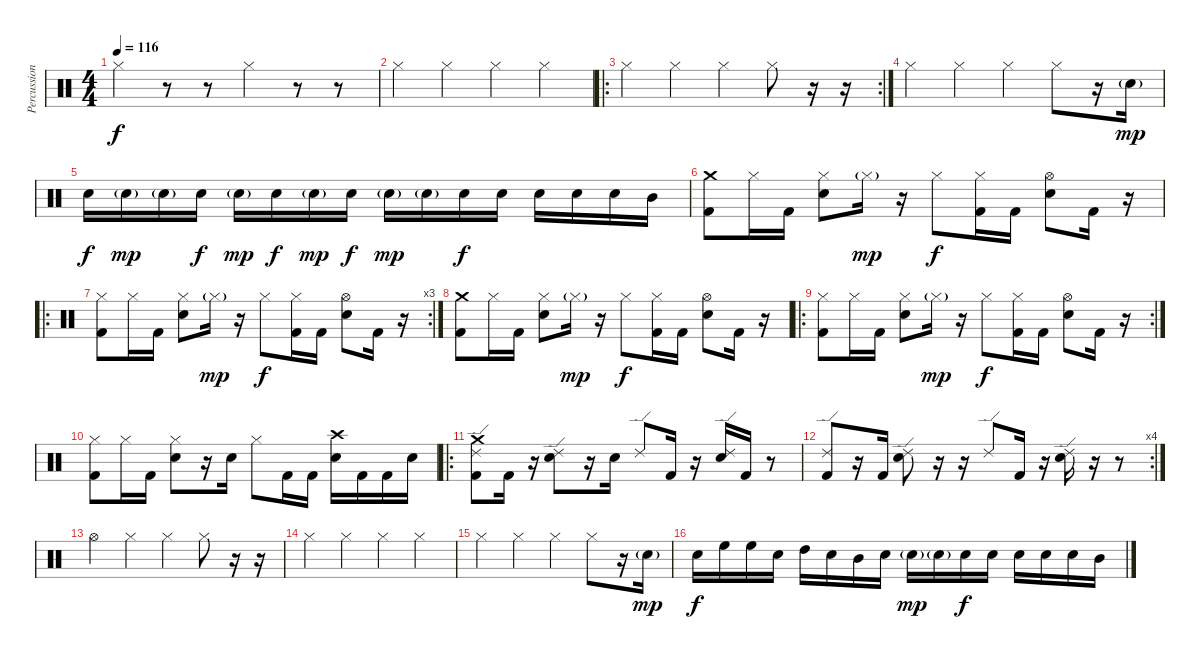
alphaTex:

\track ("Percussion" "Percussion") {instrument percussion}
\staff {score}
\articulation defaults
\ts (4 4)
\tempo 116
\clef neutral
\ks c "Hi-Hat (closed)".4{dy f}
r.8 r.8 "Hi-Hat (closed)".4 r.8 r.8 |
"Hi-Hat (closed)".4 "Hi-Hat (closed)".4 "Hi-Hat (closed)".4 "Hi-Hat (closed)".4 |
\ro
\rc 2 "Hi-Hat (closed)".4 "Hi-Hat (closed)".4 "Hi-Hat (closed)".4 "Hi-Hat (closed)".8
r.16 r.16 |
"Hi-Hat (closed)".4 "Hi-Hat (closed)".4 "Hi-Hat (closed)".4 "Hi-Hat (closed)".8 r.16 "Electric Snare (hit)"{g}.16{dy mp} |
"Electric Snare (hit)".16{dy f} "Electric Snare (hit)"{g}.16{dy mp} "Electric Snare (hit)"{g}.16 "Electric Snare (hit)".16{dy f} "Electric Snare (hit)"{g}.16{dy mp} "Electric Snare (hit)".16{dy f} "Electric Snare (hit)"{g}.16{dy mp} "Electric Snare (hit)".16{dy f} "Electric Snare (hit)"{g}.16{dy mp} "Electric Snare (hit)"{g}.16 "Electric Snare (hit)".16{dy f} "Electric Snare (hit)".16 "Electric Snare (hit)".16 "Electric Snare (hit)".16 "Electric Snare (hit)".16 "Mid Tom (hit)".16 |
("Crash medium (hit)" "Kick (hit) 2").8 "Hi-Hat (closed)".16 "Kick (hit) 2".16 ("Hi-Hat (closed)" "Electric Snare (hit)").8 "Hi-Hat (closed)"{g}.16{dy mp} r.16 "Hi-Hat (closed)".8{dy f} ("Hi-Hat (closed)" "Kick (hit) 2").16 "Kick (hit) 2".16 ("Hi-Hat (open)" "Electric Snare (hit)").8 "Kick (hit) 2".16 r.16 |
\ro
\rc 3
("Hi-Hat (closed)" "Kick (hit) 2").8 "Hi-Hat (closed)".16 "Kick (hit) 2".16 ("Hi-Hat (closed)" "Electric Snare (hit)").8 "Hi-Hat (closed)"{g}.16{dy mp} r.16 "Hi-Hat (closed)".8{dy f} ("Hi-Hat (closed)" "Kick (hit) 2").16 "Kick (hit) 2".16 ("Hi-Hat (open)" "Electric Snare (hit)").8 "Kick (hit) 2".16 r.16 |
("Crash medium (hit)" "Kick (hit) 2").8 "Hi-Hat (closed)".16 "Kick (hit) 2".16 ("Hi-Hat (closed)" "Electric Snare (hit)").8 "Hi-Hat (closed)"{g}.16{dy mp} r.16 "Hi-Hat (closed)".8{dy f} ("Hi-Hat (closed)" "Kick (hit) 2").16 "Kick (hit) 2".16 ("Hi-Hat (open)" "Electric Snare (hit)").8 "Kick (hit) 2".16 r.16 |
\ro
\rc 2
("Hi-Hat (closed)" "Kick (hit) 2").8 "Hi-Hat (closed)".16 "Kick (hit) 2".16 ("Hi-Hat (closed)" "Electric Snare (hit)").8 "Hi-Hat (closed)"{g}.16{dy mp} r.16 "Hi-Hat (closed)".8{dy f} ("Hi-Hat (closed)" "Kick (hit) 2").16 "Kick (hit) 2".16 ("Hi-Hat (open)" "Electric Snare (hit)").8 "Kick (hit) 2".16 r.16 |
("Hi-Hat (closed)" "Kick (hit) 2").8 "Hi-Hat (closed)".16 "Kick (hit) 2".16 ("Hi-Hat (closed)" "Electric Snare (hit)").8 r.16 "Electric Snare (hit)".16 "Hi-Hat (closed)".8 "Kick (hit) 2".16 "Kick (hit) 2".16 ("Crash high (hit)" "Electric Snare (hit)").16 "Kick (hit) 2".16 "Kick (hit) 2".16 "Electric Snare (hit)".16 |
\ro
("Crash medium (hit)" "Ride (edge) 2" "Kick (hit) 2").8 "Kick (hit) 2".16 r.16 ("Ride (edge) 2" "Electric Snare (hit)").8 r.16 "Electric Snare (hit)".16 "Ride (edge) 2".8 "Kick (hit) 2".16 r.16 ("Ride (edge) 2" "Electric Snare (hit)").16 "Kick (hit) 2".16 r.8 |
\rc 4
("Ride (edge) 2" "Kick (hit) 2").8 r.16 "Kick (hit) 2".16 ("Ride (edge) 2" "Electric Snare (hit)").8 r.16 r.16 "Ride (edge) 2".8 "Kick (hit) 2".16 r.16 ("Ride (edge) 2" "Electric Snare (hit)").16 r.16 r.8 |
"Hi-Hat (open)".4 "Hi-Hat (closed)".4 "Hi-Hat (closed)".4 "Hi-Hat (closed)".8 r.16 r.16 |
"Hi-Hat (closed)".4 "Hi-Hat (closed)".4 "Hi-Hat (closed)".4 "Hi-Hat (closed)".4 |
"Hi-Hat (closed)".4 "Hi-Hat (closed)".4 "Hi-Hat (closed)".4 "Hi-Hat (closed)".8 r.16 "Electric Snare (hit)"{g}.16{dy mp} |
"Electric Snare (hit)".16{dy f} "High Floor Tom (hit)".16 "High Floor Tom (hit)".16 "Electric Snare (hit)".16 "High Tom (hit)".16 "Electric Snare (hit)".16 "Mid Tom (hit)".16 "Electric Snare (hit)".16 "Electric Snare (hit)"{g}.16{dy mp} "Electric Snare (hit)"{g}.16 "Electric Snare (hit)".16{dy f} "Electric Snare (hit)".16 "Electric Snare (hit)".16 "Electric Snare (hit)".16 "Electric Snare (hit)".16 "Mid Tom (hit)".16
